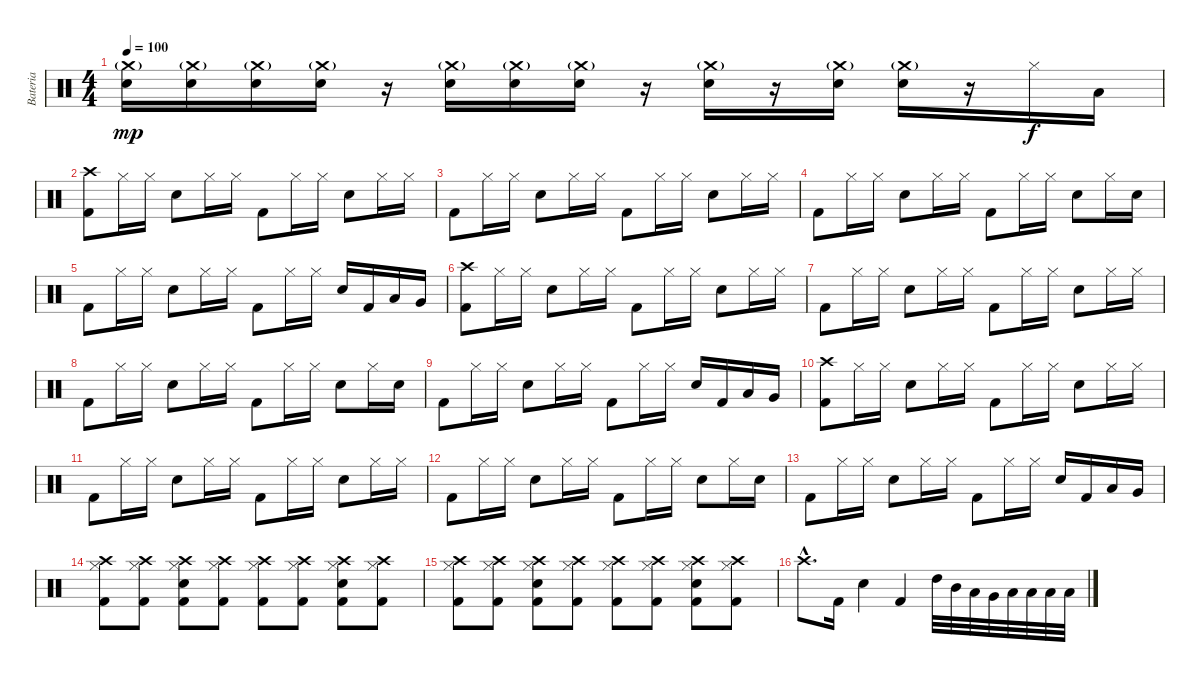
\track ("Bateria" "Bateria") {instrument percussion}
\staff {score}
\articulation defaults
\ts (4 4)
\tempo 100
\clef neutral
\ks c
("Crash medium (hit)"{g} "Electric Snare (hit)").16{dy mp} ("Crash medium (hit)"{g} "Electric Snare (hit)").16 ("Crash medium (hit)"{g} "Electric Snare (hit)").16 ("Crash medium (hit)"{g} "Electric Snare (hit)").16 r.16 ("Crash medium (hit)"{g} "Electric Snare (hit)").16 ("Crash medium (hit)"{g} "Electric Snare (hit)").16 ("Crash medium (hit)"{g} "Electric Snare (hit)").16 r.16 ("Crash medium (hit)"{g} "Electric Snare (hit)").16 r.16 ("Crash medium (hit)"{g} "Electric Snare (hit)").16 ("Crash medium (hit)"{g} "Electric Snare (hit)").16 r.16 "Hi-Hat (closed)".16{dy f} "Low Tom (hit)".16 |
("Crash high (hit)" "Kick (hit) 2").8 "Hi-Hat (closed)".16 "Hi-Hat (closed)".16 "Electric Snare (hit)".8 "Hi-Hat (closed)".16 "Hi-Hat (closed)".16 "Kick (hit) 2".8 "Hi-Hat (closed)".16 "Hi-Hat (closed)".16 "Electric Snare (hit)".8 "Hi-Hat (closed)".16 "Hi-Hat (closed)".16 |
"Kick (hit) 2".8 "Hi-Hat (closed)".16 "Hi-Hat (closed)".16 "Electric Snare (hit)".8 "Hi-Hat (closed)".16 "Hi-Hat (closed)".16 "Kick (hit) 2".8 "Hi-Hat (closed)".16 "Hi-Hat (closed)".16 "Electric Snare (hit)".8 "Hi-Hat (closed)".16 "Hi-Hat (closed)".16 |
"Kick (hit) 2".8 "Hi-Hat (closed)".16 "Hi-Hat (closed)".16 "Electric Snare (hit)".8 "Hi-Hat (closed)".16 "Hi-Hat (closed)".16 "Kick (hit) 2".8 "Hi-Hat (closed)".16 "Hi-Hat (closed)".16 "Electric Snare (hit)".8 "Hi-Hat (closed)".16 "Electric Snare (hit)".16 |
"Kick (hit) 2".8 "Hi-Hat (closed)".16 "Hi-Hat (closed)".16 "Electric Snare (hit)".8 "Hi-Hat (closed)".16 "Hi-Hat (closed)".16 "Kick (hit) 2".8 "Hi-Hat (closed)".16 "Hi-Hat (closed)".16 "Electric Snare (hit)".16 "Kick (hit) 2".16 "Low Tom (hit)".16 "Very Low Tom (hit)".16 |
("Crash high (hit)" "Kick (hit) 2").8 "Hi-Hat (closed)".16 "Hi-Hat (closed)".16 "Electric Snare (hit)".8 "Hi-Hat (closed)".16 "Hi-Hat (closed)".16 "Kick (hit) 2".8 "Hi-Hat (closed)".16 "Hi-Hat (closed)".16 "Electric Snare (hit)".8 "Hi-Hat (closed)".16 "Hi-Hat (closed)".16 |
"Kick (hit) 2".8 "Hi-Hat (closed)".16 "Hi-Hat (closed)".16 "Electric Snare (hit)".8 "Hi-Hat (closed)".16 "Hi-Hat (closed)".16 "Kick (hit) 2".8 "Hi-Hat (closed)".16 "Hi-Hat (closed)".16 "Electric Snare (hit)".8 "Hi-Hat (closed)".16 "Hi-Hat (closed)".16 |
"Kick (hit) 2".8 "Hi-Hat (closed)".16 "Hi-Hat (closed)".16 "Electric Snare (hit)".8 "Hi-Hat (closed)".16 "Hi-Hat (closed)".16 "Kick (hit) 2".8 "Hi-Hat (closed)".16 "Hi-Hat (closed)".16 "Electric Snare (hit)".8 "Hi-Hat (closed)".16 "Electric Snare (hit)".16 |
"Kick (hit) 2".8 "Hi-Hat (closed)".16 "Hi-Hat (closed)".16 "Electric Snare (hit)".8 "Hi-Hat (closed)".16 "Hi-Hat (closed)".16 "Kick (hit) 2".8 "Hi-Hat (closed)".16 "Hi-Hat (closed)".16 "Electric Snare (hit)".16 "Kick (hit) 2".16 "Low Tom (hit)".16 "Very Low Tom (hit)".16 |
("Crash high (hit)" "Kick (hit) 2").8 "Hi-Hat (closed)".16 "Hi-Hat (closed)".16 "Electric Snare (hit)".8 "Hi-Hat (closed)".16 "Hi-Hat (closed)".16 "Kick (hit) 2".8 "Hi-Hat (closed)".16 "Hi-Hat (closed)".16 "Electric Snare (hit)".8 "Hi-Hat (closed)".16 "Hi-Hat (closed)".16 |
"Kick (hit) 2".8 "Hi-Hat (closed)".16 "Hi-Hat (closed)".16 "Electric Snare (hit)".8 "Hi-Hat (closed)".16 "Hi-Hat (closed)".16 "Kick (hit) 2".8 "Hi-Hat (closed)".16 "Hi-Hat (closed)".16 "Electric Snare (hit)".8 "Hi-Hat (closed)".16 "Hi-Hat (closed)".16 |
"Kick (hit) 2".8 "Hi-Hat (closed)".16 "Hi-Hat (closed)".16 "Electric Snare (hit)".8 "Hi-Hat (closed)".16 "Hi-Hat (closed)".16 "Kick (hit) 2".8 "Hi-Hat (closed)".16 "Hi-Hat (closed)".16 "Electric Snare (hit)".8 "Hi-Hat (closed)".16 "Electric Snare (hit)".16 |
"Kick (hit) 2".8 "Hi-Hat (closed)".16 "Hi-Hat (closed)".16 "Electric Snare (hit)".8 "Hi-Hat (closed)".16 "Hi-Hat (closed)".16 "Kick (hit) 2".8 "Hi-Hat (closed)".16 "Hi-Hat (closed)".16 "Electric Snare (hit)".16 "Kick (hit) 2".16 "Low Tom (hit)".16 "Very Low Tom (hit)".16 |
("Crash high (hit)" "Hi-Hat (closed)" "Kick (hit) 2").8 ("Crash high (hit)" "Hi-Hat (closed)" "Kick (hit) 2").8 ("Crash high (hit)" "Electric Snare (hit)" "Hi-Hat (closed)" "Kick (hit) 2").8 ("Crash high (hit)" "Hi-Hat (closed)" "Kick (hit) 2").8 ("Crash high (hit)" "Hi-Hat (closed)" "Kick (hit) 2").8 ("Crash high (hit)" "Hi-Hat (closed)" "Kick (hit) 2").8 ("Crash high (hit)" "Electric Snare (hit)" "Hi-Hat (closed)" "Kick (hit) 2").8 ("Crash high (hit)" "Hi-Hat (closed)" "Kick (hit) 2").8 |
("Crash high (hit)" "Hi-Hat (closed)" "Kick (hit) 2").8 ("Crash high (hit)" "Hi-Hat (closed)" "Kick (hit) 2").8 ("Crash high (hit)" "Electric Snare (hit)" "Hi-Hat (closed)" "Kick (hit) 2").8 ("Crash high (hit)" "Hi-Hat (closed)" "Kick (hit) 2").8 ("Crash high (hit)" "Hi-Hat (closed)" "Kick (hit) 2").8 ("Crash high (hit)" "Hi-Hat (closed)" "Kick (hit) 2").8 ("Crash high (hit)" "Electric Snare (hit)" "Hi-Hat (closed)" "Kick (hit) 2").8 ("Crash high (hit)" "Hi-Hat (closed)" "Kick (hit) 2").8 |
"Crash high (hit)"{hac}.8{d} "Kick (hit) 2".16 "Electric Snare (hit)".4 "Kick (hit) 2".4 "High Tom (hit)".32 "Mid Tom (hit)".32 "Low Tom (hit)".32 "Very Low Tom (hit)".32 "Low Floor Tom (hit)".32 "Low Floor Tom (hit)".32 "Low Floor Tom (hit)".32 "Low Floor Tom (hit)".32
